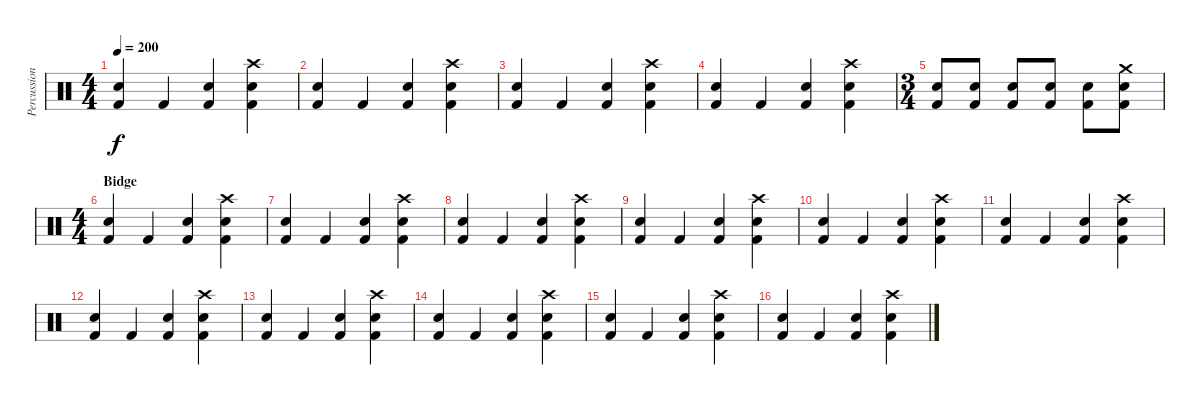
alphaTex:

\track ("Percussion" "Percussion") {instrument percussion}
\staff {score}
\articulation defaults
\ts (4 4)
\tempo 200
\clef neutral
\ks c
("Snare (hit) 2" "Kick (hit) 2").4{dy f} "Kick (hit) 2".4 ("Snare (hit) 2" "Kick (hit) 2").4 ("Crash high (hit)" "Snare (hit) 2" "Kick (hit) 2").4 |
("Snare (hit) 2" "Kick (hit) 2").4 "Kick (hit) 2".4 ("Snare (hit) 2" "Kick (hit) 2").4 ("Crash high (hit)" "Snare (hit) 2" "Kick (hit) 2").4 |
("Snare (hit) 2" "Kick (hit) 2").4 "Kick (hit) 2".4 ("Snare (hit) 2" "Kick (hit) 2").4 ("Crash high (hit)" "Snare (hit) 2" "Kick (hit) 2").4 |
("Snare (hit) 2" "Kick (hit) 2").4 "Kick (hit) 2".4 ("Snare (hit) 2" "Kick (hit) 2").4 ("Crash high (hit)" "Snare (hit) 2" "Kick (hit) 2").4 |
\ts (3 4)
("Snare (hit) 2" "Kick (hit) 2").8 ("Snare (hit) 2" "Kick (hit) 2").8 ("Snare (hit) 2" "Kick (hit) 2").8 ("Snare (hit) 2" "Kick (hit) 2").8 ("Snare (hit) 2" "Kick (hit) 2").8 ("Crash medium (hit)" "Snare (hit) 2" "Kick (hit) 2").8 |
\ts (4 4)
\section ("" "Bidge")
("Snare (hit) 2" "Kick (hit) 2").4 "Kick (hit) 2".4 ("Snare (hit) 2" "Kick (hit) 2").4 ("Crash high (hit)" "Snare (hit) 2" "Kick (hit) 2").4 |
("Snare (hit) 2" "Kick (hit) 2").4 "Kick (hit) 2".4 ("Snare (hit) 2" "Kick (hit) 2").4 ("Crash high (hit)" "Snare (hit) 2" "Kick (hit) 2").4 |
("Snare (hit) 2" "Kick (hit) 2").4 "Kick (hit) 2".4 ("Snare (hit) 2" "Kick (hit) 2").4 ("Crash high (hit)" "Snare (hit) 2" "Kick (hit) 2").4 |
("Snare (hit) 2" "Kick (hit) 2").4 "Kick (hit) 2".4 ("Snare (hit) 2" "Kick (hit) 2").4 ("Crash high (hit)" "Snare (hit) 2" "Kick (hit) 2").4 |
("Snare (hit) 2" "Kick (hit) 2").4 "Kick (hit) 2".4 ("Snare (hit) 2" "Kick (hit) 2").4 ("Crash high (hit)" "Snare (hit) 2" "Kick (hit) 2").4 |
("Snare (hit) 2" "Kick (hit) 2").4 "Kick (hit) 2".4 ("Snare (hit) 2" "Kick (hit) 2").4 ("Crash high (hit)" "Snare (hit) 2" "Kick (hit) 2").4 |
("Snare (hit) 2" "Kick (hit) 2").4 "Kick (hit) 2".4 ("Snare (hit) 2" "Kick (hit) 2").4 ("Crash high (hit)" "Snare (hit) 2" "Kick (hit) 2").4 |
("Snare (hit) 2" "Kick (hit) 2").4 "Kick (hit) 2".4 ("Snare (hit) 2" "Kick (hit) 2").4 ("Crash high (hit)" "Snare (hit) 2" "Kick (hit) 2").4 |
("Snare (hit) 2" "Kick (hit) 2").4 "Kick (hit) 2".4 ("Snare (hit) 2" "Kick (hit) 2").4 ("Crash high (hit)" "Snare (hit) 2" "Kick (hit) 2").4 |
("Snare (hit) 2" "Kick (hit) 2").4 "Kick (hit) 2".4 ("Snare (hit) 2" "Kick (hit) 2").4 ("Crash high (hit)" "Snare (hit) 2" "Kick (hit) 2").4 |
("Snare (hit) 2" "Kick (hit) 2").4 "Kick (hit) 2".4 ("Snare (hit) 2" "Kick (hit) 2").4 ("Crash high (hit)" "Snare (hit) 2" "Kick (hit) 2").4
